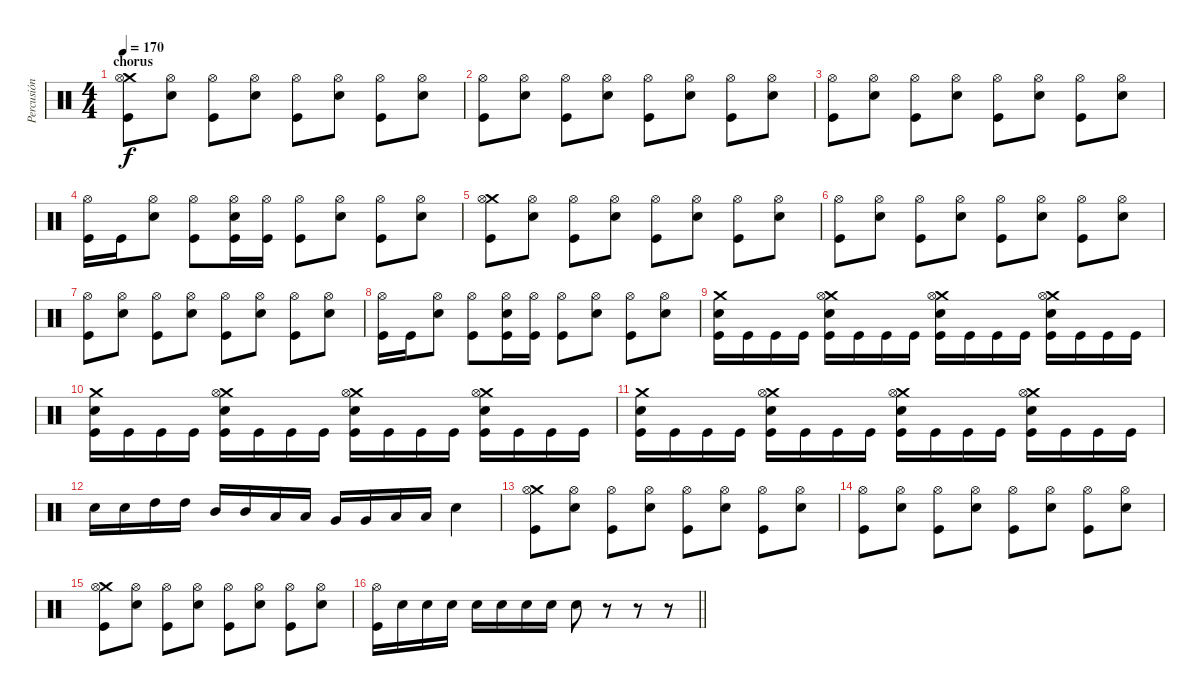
\track ("Percusión" "Percusión") {instrument percussion}
\staff {score}
\articulation defaults
\ts (4 4)
\section ("" "chorus")
\tempo 170
\clef neutral
\ks c
("Crash medium (hit)" "Hi-Hat (open)" "Kick (hit)").8{dy f} ("Hi-Hat (open)" "Electric Snare (hit)").8 ("Hi-Hat (open)" "Kick (hit)").8 ("Hi-Hat (open)" "Electric Snare (hit)").8 ("Hi-Hat (open)" "Kick (hit)").8 ("Hi-Hat (open)" "Electric Snare (hit)").8 ("Hi-Hat (open)" "Kick (hit)").8 ("Hi-Hat (open)" "Electric Snare (hit)").8 |
("Hi-Hat (open)" "Kick (hit)").8 ("Hi-Hat (open)" "Electric Snare (hit)").8 ("Hi-Hat (open)" "Kick (hit)").8 ("Hi-Hat (open)" "Electric Snare (hit)").8 ("Hi-Hat (open)" "Kick (hit)").8 ("Hi-Hat (open)" "Electric Snare (hit)").8 ("Hi-Hat (open)" "Kick (hit)").8 ("Hi-Hat (open)" "Electric Snare (hit)").8 |
("Hi-Hat (open)" "Kick (hit)").8 ("Hi-Hat (open)" "Electric Snare (hit)").8 ("Hi-Hat (open)" "Kick (hit)").8 ("Hi-Hat (open)" "Electric Snare (hit)").8 ("Hi-Hat (open)" "Kick (hit)").8 ("Hi-Hat (open)" "Electric Snare (hit)").8 ("Hi-Hat (open)" "Kick (hit)").8 ("Hi-Hat (open)" "Electric Snare (hit)").8 |
("Hi-Hat (open)" "Kick (hit)").16 "Kick (hit)".16 ("Hi-Hat (open)" "Electric Snare (hit)").8 ("Hi-Hat (open)" "Kick (hit)").8 ("Hi-Hat (open)" "Electric Snare (hit)" "Kick (hit)").16 ("Hi-Hat (open)" "Kick (hit)").16 ("Hi-Hat (open)" "Kick (hit)").8 ("Hi-Hat (open)" "Electric Snare (hit)").8 ("Hi-Hat (open)" "Kick (hit)").8 ("Hi-Hat (open)" "Electric Snare (hit)").8 |
("Crash medium (hit)" "Hi-Hat (open)" "Kick (hit)").8 ("Hi-Hat (open)" "Electric Snare (hit)").8 ("Hi-Hat (open)" "Kick (hit)").8 ("Hi-Hat (open)" "Electric Snare (hit)").8 ("Hi-Hat (open)" "Kick (hit)").8 ("Hi-Hat (open)" "Electric Snare (hit)").8 ("Hi-Hat (open)" "Kick (hit)").8 ("Hi-Hat (open)" "Electric Snare (hit)").8 |
("Hi-Hat (open)" "Kick (hit)").8 ("Hi-Hat (open)" "Electric Snare (hit)").8 ("Hi-Hat (open)" "Kick (hit)").8 ("Hi-Hat (open)" "Electric Snare (hit)").8 ("Hi-Hat (open)" "Kick (hit)").8 ("Hi-Hat (open)" "Electric Snare (hit)").8 ("Hi-Hat (open)" "Kick (hit)").8 ("Hi-Hat (open)" "Electric Snare (hit)").8 |
("Hi-Hat (open)" "Kick (hit)").8 ("Hi-Hat (open)" "Electric Snare (hit)").8 ("Hi-Hat (open)" "Kick (hit)").8 ("Hi-Hat (open)" "Electric Snare (hit)").8 ("Hi-Hat (open)" "Kick (hit)").8 ("Hi-Hat (open)" "Electric Snare (hit)").8 ("Hi-Hat (open)" "Kick (hit)").8 ("Hi-Hat (open)" "Electric Snare (hit)").8 |
("Hi-Hat (open)" "Kick (hit)").16 "Kick (hit)".16 ("Hi-Hat (open)" "Electric Snare (hit)").8 ("Hi-Hat (open)" "Kick (hit)").8 ("Hi-Hat (open)" "Electric Snare (hit)" "Kick (hit)").16 ("Hi-Hat (open)" "Kick (hit)").16 ("Hi-Hat (open)" "Kick (hit)").8 ("Hi-Hat (open)" "Electric Snare (hit)").8 ("Hi-Hat (open)" "Kick (hit)").8 ("Hi-Hat (open)" "Electric Snare (hit)").8 |
("Crash medium (hit)" "Electric Snare (hit)" "Kick (hit)").16 "Kick (hit)".16 "Kick (hit)".16 "Kick (hit)".16 ("Crash medium (hit)" "Hi-Hat (open)" "Electric Snare (hit)" "Kick (hit)").16 "Kick (hit)".16 "Kick (hit)".16 "Kick (hit)".16 ("Crash medium (hit)" "Hi-Hat (open)" "Electric Snare (hit)" "Kick (hit)").16 "Kick (hit)".16 "Kick (hit)".16 "Kick (hit)".16 ("Crash medium (hit)" "Hi-Hat (open)" "Electric Snare (hit)" "Kick (hit)").16 "Kick (hit)".16 "Kick (hit)".16 "Kick (hit)".16 |
("Crash medium (hit)" "Electric Snare (hit)" "Kick (hit)").16 "Kick (hit)".16 "Kick (hit)".16 "Kick (hit)".16 ("Crash medium (hit)" "Hi-Hat (open)" "Electric Snare (hit)" "Kick (hit)").16 "Kick (hit)".16 "Kick (hit)".16 "Kick (hit)".16 ("Crash medium (hit)" "Hi-Hat (open)" "Electric Snare (hit)" "Kick (hit)").16 "Kick (hit)".16 "Kick (hit)".16 "Kick (hit)".16 ("Crash medium (hit)" "Hi-Hat (open)" "Electric Snare (hit)" "Kick (hit)").16 "Kick (hit)".16 "Kick (hit)".16 "Kick (hit)".16 |
("Crash medium (hit)" "Electric Snare (hit)" "Kick (hit)").16 "Kick (hit)".16 "Kick (hit)".16 "Kick (hit)".16 ("Crash medium (hit)" "Hi-Hat (open)" "Electric Snare (hit)" "Kick (hit)").16 "Kick (hit)".16 "Kick (hit)".16 "Kick (hit)".16 ("Crash medium (hit)" "Hi-Hat (open)" "Electric Snare (hit)" "Kick (hit)").16 "Kick (hit)".16 "Kick (hit)".16 "Kick (hit)".16 ("Crash medium (hit)" "Hi-Hat (open)" "Electric Snare (hit)" "Kick (hit)").16 "Kick (hit)".16 "Kick (hit)".16 "Kick (hit)".16 |
"Electric Snare (hit)".16 "Electric Snare (hit)".16 "High Tom (hit)".16 "High Tom (hit)".16 "Mid Tom (hit)".16 "Mid Tom (hit)".16 "Low Tom (hit)".16 "Low Tom (hit)".16 "Very Low Tom (hit)".16 "Very Low Tom (hit)".16 "Low Tom (hit)".16 "Low Tom (hit)".16 "Electric Snare (hit)".4 |
("Crash medium (hit)" "Hi-Hat (open)" "Kick (hit)").8 ("Hi-Hat (open)" "Electric Snare (hit)").8 ("Hi-Hat (open)" "Kick (hit)").8 ("Hi-Hat (open)" "Electric Snare (hit)").8 ("Hi-Hat (open)" "Kick (hit)").8 ("Hi-Hat (open)" "Electric Snare (hit)").8 ("Hi-Hat (open)" "Kick (hit)").8 ("Hi-Hat (open)" "Electric Snare (hit)").8 |
("Hi-Hat (open)" "Kick (hit)").8 ("Hi-Hat (open)" "Electric Snare (hit)").8 ("Hi-Hat (open)" "Kick (hit)").8 ("Hi-Hat (open)" "Electric Snare (hit)").8 ("Hi-Hat (open)" "Kick (hit)").8 ("Hi-Hat (open)" "Electric Snare (hit)").8 ("Hi-Hat (open)" "Kick (hit)").8 ("Hi-Hat (open)" "Electric Snare (hit)").8 |
("Crash medium (hit)" "Hi-Hat (open)" "Kick (hit)").8 ("Hi-Hat (open)" "Electric Snare (hit)").8 ("Hi-Hat (open)" "Kick (hit)").8 ("Hi-Hat (open)" "Electric Snare (hit)").8 ("Hi-Hat (open)" "Kick (hit)").8 ("Hi-Hat (open)" "Electric Snare (hit)").8 ("Hi-Hat (open)" "Kick (hit)").8 ("Hi-Hat (open)" "Electric Snare (hit)").8 |
\barLineRight lightlight
("Hi-Hat (open)" "Kick (hit)").16 "Electric Snare (hit)".16 "Electric Snare (hit)".16 "Electric Snare (hit)".16 "Electric Snare (hit)".16 "Electric Snare (hit)".16 "Electric Snare (hit)".16 "Electric Snare (hit)".16 "Electric Snare (hit)".8 r.8 r.8 r.8
